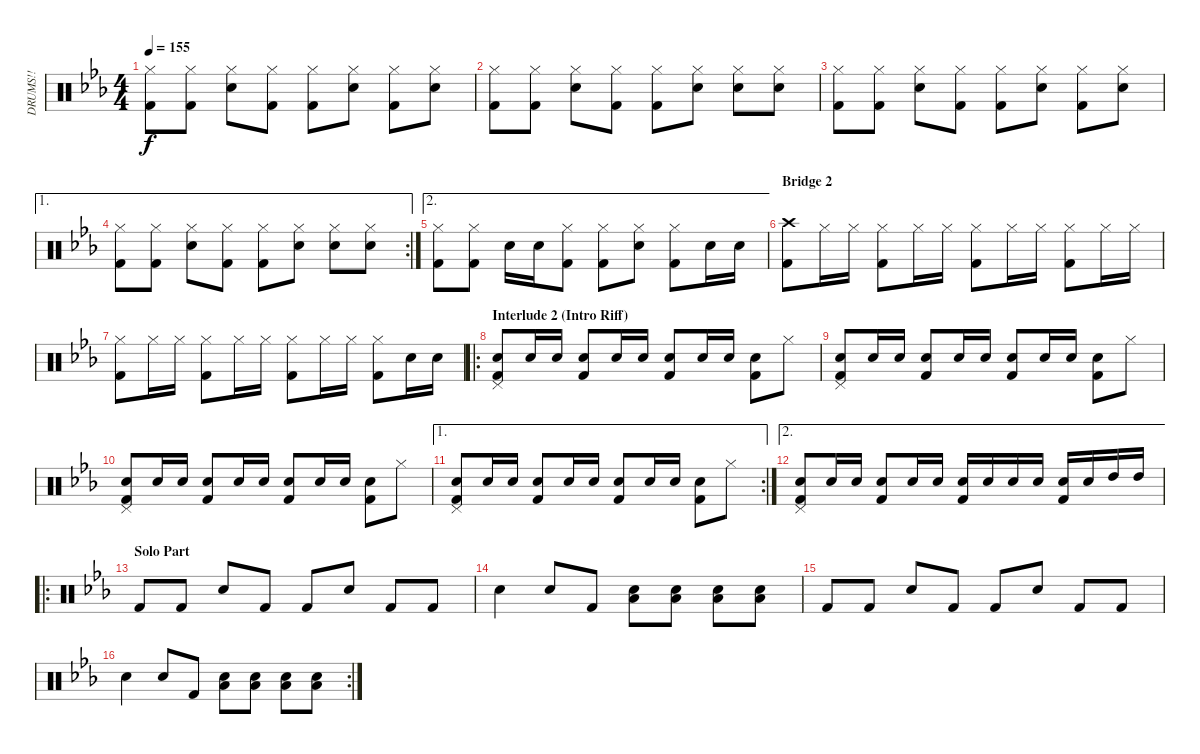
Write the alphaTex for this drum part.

\track ("DRUMS!!" "DRUMS!!") {instrument percussion}
\staff {score}
\articulation defaults
\ts (4 4)
\tempo 155
\clef neutral
\ks cminor
("Hi-Hat (closed)" "Kick (hit) 2").8{dy f} ("Hi-Hat (closed)" "Kick (hit) 2").8 ("Hi-Hat (closed)" "Snare (hit) 2").8 ("Hi-Hat (closed)" "Kick (hit) 2").8 ("Hi-Hat (closed)" "Kick (hit) 2").8 ("Hi-Hat (closed)" "Snare (hit) 2").8 ("Hi-Hat (closed)" "Kick (hit) 2").8 ("Hi-Hat (closed)" "Snare (hit) 2").8 |
("Hi-Hat (closed)" "Kick (hit) 2").8 ("Hi-Hat (closed)" "Kick (hit) 2").8 ("Hi-Hat (closed)" "Snare (hit) 2").8 ("Hi-Hat (closed)" "Kick (hit) 2").8 ("Hi-Hat (closed)" "Kick (hit) 2").8 ("Hi-Hat (closed)" "Snare (hit) 2").8 ("Hi-Hat (closed)" "Snare (hit) 2").8 ("Hi-Hat (closed)" "Snare (hit) 2").8 |
("Hi-Hat (closed)" "Kick (hit) 2").8 ("Hi-Hat (closed)" "Kick (hit) 2").8 ("Hi-Hat (closed)" "Snare (hit) 2").8 ("Hi-Hat (closed)" "Kick (hit) 2").8 ("Hi-Hat (closed)" "Kick (hit) 2").8 ("Hi-Hat (closed)" "Snare (hit) 2").8 ("Hi-Hat (closed)" "Kick (hit) 2").8 ("Hi-Hat (closed)" "Snare (hit) 2").8 |
\ae 1
\rc 2
("Hi-Hat (closed)" "Kick (hit) 2").8 ("Hi-Hat (closed)" "Kick (hit) 2").8 ("Hi-Hat (closed)" "Snare (hit) 2").8 ("Hi-Hat (closed)" "Kick (hit) 2").8 ("Hi-Hat (closed)" "Kick (hit) 2").8 ("Hi-Hat (closed)" "Snare (hit) 2").8 ("Hi-Hat (closed)" "Snare (hit) 2").8 ("Hi-Hat (closed)" "Snare (hit) 2").8 |
\ae 2
("Hi-Hat (closed)" "Kick (hit) 2").8 ("Hi-Hat (closed)" "Kick (hit) 2").8 "Snare (hit) 2".16 "Snare (hit) 2".16 ("Hi-Hat (closed)" "Kick (hit) 2").8 ("Hi-Hat (closed)" "Kick (hit) 2").8 ("Hi-Hat (closed)" "Snare (hit) 2").8 ("Hi-Hat (closed)" "Kick (hit) 2").8 "Snare (hit) 2".16 "Snare (hit) 2".16 |
\section ("" "Bridge 2")
("Crash high (hit)" "Kick (hit) 2").8 "Hi-Hat (closed)".16 "Hi-Hat (closed)".16 ("Hi-Hat (closed)" "Kick (hit) 2").8 "Hi-Hat (closed)".16 "Hi-Hat (closed)".16 ("Hi-Hat (closed)" "Kick (hit) 2").8 "Hi-Hat (closed)".16 "Hi-Hat (closed)".16 ("Hi-Hat (closed)" "Kick (hit) 2").8 "Hi-Hat (closed)".16 "Hi-Hat (closed)".16 |
("Hi-Hat (closed)" "Kick (hit) 2").8 "Hi-Hat (closed)".16 "Hi-Hat (closed)".16 ("Hi-Hat (closed)" "Kick (hit) 2").8 "Hi-Hat (closed)".16 "Hi-Hat (closed)".16 ("Hi-Hat (closed)" "Kick (hit) 2").8 "Hi-Hat (closed)".16 "Hi-Hat (closed)".16 ("Hi-Hat (closed)" "Kick (hit) 2").8 "Snare (hit) 2".16 "Snare (hit) 2".16 |
\ro
\section ("" "Interlude 2 (Intro Riff)")
("Pedal Hi-Hat (hit)" "Snare (hit) 2" "Kick (hit) 2").8 "Snare (hit) 2".16 "Snare (hit) 2".16 ("Snare (hit) 2" "Kick (hit) 2").8 "Snare (hit) 2".16 "Snare (hit) 2".16 ("Snare (hit) 2" "Kick (hit) 2").8 "Snare (hit) 2".16 "Snare (hit) 2".16 ("Snare (hit) 2" "Kick (hit) 2").8 "Hi-Hat (closed)".8 |
("Pedal Hi-Hat (hit)" "Snare (hit) 2" "Kick (hit) 2").8 "Snare (hit) 2".16 "Snare (hit) 2".16 ("Snare (hit) 2" "Kick (hit) 2").8 "Snare (hit) 2".16 "Snare (hit) 2".16 ("Snare (hit) 2" "Kick (hit) 2").8 "Snare (hit) 2".16 "Snare (hit) 2".16 ("Snare (hit) 2" "Kick (hit) 2").8 "Hi-Hat (closed)".8 |
("Pedal Hi-Hat (hit)" "Snare (hit) 2" "Kick (hit) 2").8 "Snare (hit) 2".16 "Snare (hit) 2".16 ("Snare (hit) 2" "Kick (hit) 2").8 "Snare (hit) 2".16 "Snare (hit) 2".16 ("Snare (hit) 2" "Kick (hit) 2").8 "Snare (hit) 2".16 "Snare (hit) 2".16 ("Snare (hit) 2" "Kick (hit) 2").8 "Hi-Hat (closed)".8 |
\ae 1
\rc 2
("Pedal Hi-Hat (hit)" "Snare (hit) 2" "Kick (hit) 2").8 "Snare (hit) 2".16 "Snare (hit) 2".16 ("Snare (hit) 2" "Kick (hit) 2").8 "Snare (hit) 2".16 "Snare (hit) 2".16 ("Snare (hit) 2" "Kick (hit) 2").8 "Snare (hit) 2".16 "Snare (hit) 2".16 ("Snare (hit) 2" "Kick (hit) 2").8 "Hi-Hat (closed)".8 |
\ae 2
("Pedal Hi-Hat (hit)" "Snare (hit) 2" "Kick (hit) 2").8 "Snare (hit) 2".16 "Snare (hit) 2".16 ("Snare (hit) 2" "Kick (hit) 2").8 "Snare (hit) 2".16 "Snare (hit) 2".16 ("Snare (hit) 2" "Kick (hit) 2").16 "Snare (hit) 2".16 "Snare (hit) 2".16 "Snare (hit) 2".16 ("Snare (hit) 2" "Kick (hit) 2").16 "Snare (hit) 2".16 "High Tom (hit)".16 "High Tom (hit)".16 |
\ro
\section ("" "Solo Part")
"Kick (hit) 2".8 "Kick (hit) 2".8 "Snare (hit) 2".8 "Kick (hit) 2".8 "Kick (hit) 2".8 "Snare (hit) 2".8 "Kick (hit) 2".8 "Kick (hit) 2".8 |
"Snare (hit) 2".4 "Snare (hit) 2".8 "Kick (hit) 2".8 ("Snare (hit) 2" "Low Floor Tom (hit)").8 ("Snare (hit) 2" "Low Floor Tom (hit)").8 ("Snare (hit) 2" "Low Floor Tom (hit)").8 ("Snare (hit) 2" "Low Floor Tom (hit)").8 |
"Kick (hit) 2".8 "Kick (hit) 2".8 "Snare (hit) 2".8 "Kick (hit) 2".8 "Kick (hit) 2".8 "Snare (hit) 2".8 "Kick (hit) 2".8 "Kick (hit) 2".8 |
\rc 2 "Snare (hit) 2".4 "Snare (hit) 2".8 "Kick (hit) 2".8
("Snare (hit) 2" "Low Floor Tom (hit)").8 ("Snare (hit) 2" "Low Floor Tom (hit)").8 ("Snare (hit) 2" "Low Floor Tom (hit)").8 ("Snare (hit) 2" "Low Floor Tom (hit)").8
